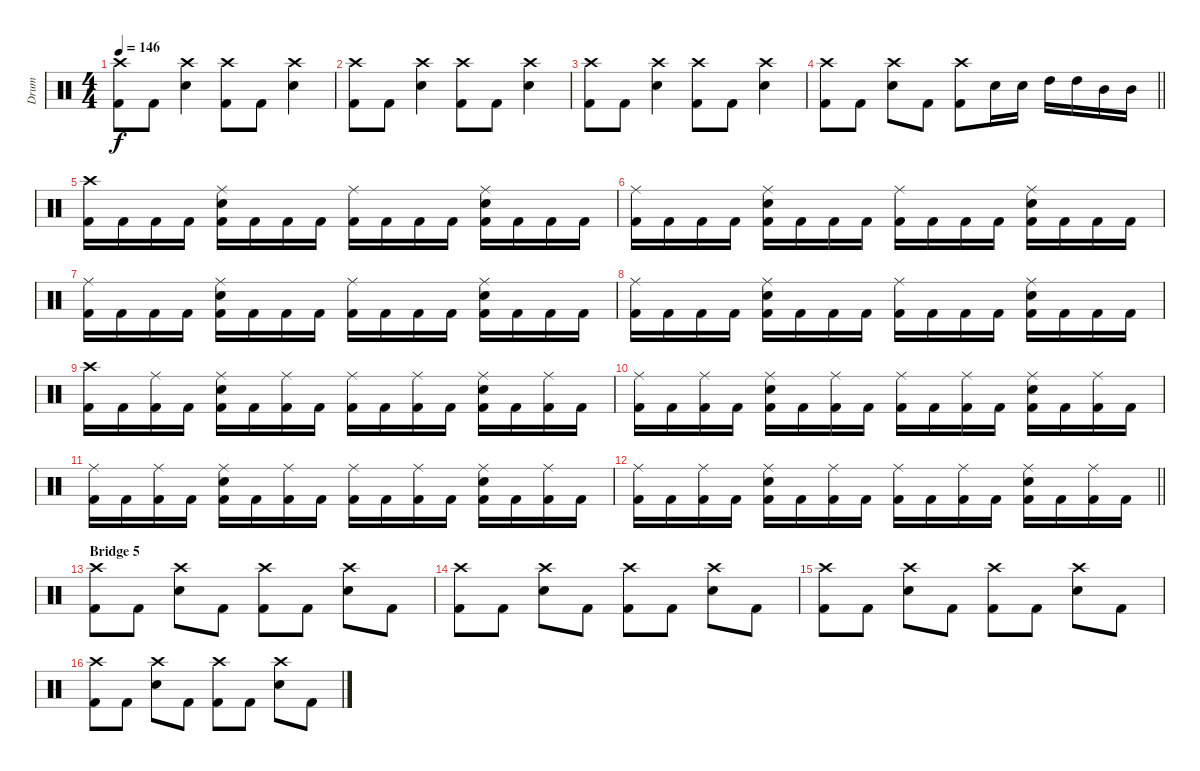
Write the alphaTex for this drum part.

\track ("Drum" "Drum") {instrument percussion}
\staff {score}
\articulation defaults
\ts (4 4)
\tempo 146
\clef neutral
\ks c
("Crash high (hit)" "Kick (hit) 2").8{dy f} "Kick (hit) 2".8 ("Crash high (hit)" "Electric Snare (hit)").4 ("Crash high (hit)" "Kick (hit) 2").8 "Kick (hit) 2".8 ("Crash high (hit)" "Electric Snare (hit)").4 |
("Crash high (hit)" "Kick (hit) 2").8 "Kick (hit) 2".8 ("Crash high (hit)" "Electric Snare (hit)").4 ("Crash high (hit)" "Kick (hit) 2").8 "Kick (hit) 2".8 ("Crash high (hit)" "Electric Snare (hit)").4 |
("Crash high (hit)" "Kick (hit) 2").8 "Kick (hit) 2".8 ("Crash high (hit)" "Electric Snare (hit)").4 ("Crash high (hit)" "Kick (hit) 2").8 "Kick (hit) 2".8 ("Crash high (hit)" "Electric Snare (hit)").4 |
\barLineRight lightlight
("Crash high (hit)" "Kick (hit) 2").8 "Kick (hit) 2".8 ("Crash high (hit)" "Electric Snare (hit)").8 "Kick (hit) 2".8 ("Crash high (hit)" "Kick (hit) 2").8 "Electric Snare (hit)".16 "Electric Snare (hit)".16 "High Tom (hit)".16 "High Tom (hit)".16 "Mid Tom (hit)".16 "Mid Tom (hit)".16 |
("Crash high (hit)" "Kick (hit) 2").16 "Kick (hit) 2".16 "Kick (hit) 2".16 "Kick (hit) 2".16 ("Ride (middle)" "Electric Snare (hit)" "Kick (hit) 2").16 "Kick (hit) 2".16 "Kick (hit) 2".16 "Kick (hit) 2".16 ("Ride (middle)" "Kick (hit) 2").16 "Kick (hit) 2".16 "Kick (hit) 2".16 "Kick (hit) 2".16 ("Ride (middle)" "Electric Snare (hit)" "Kick (hit) 2").16 "Kick (hit) 2".16 "Kick (hit) 2".16 "Kick (hit) 2".16 |
("Ride (middle)" "Kick (hit) 2").16 "Kick (hit) 2".16 "Kick (hit) 2".16 "Kick (hit) 2".16 ("Ride (middle)" "Electric Snare (hit)" "Kick (hit) 2").16 "Kick (hit) 2".16 "Kick (hit) 2".16 "Kick (hit) 2".16 ("Ride (middle)" "Kick (hit) 2").16 "Kick (hit) 2".16 "Kick (hit) 2".16 "Kick (hit) 2".16 ("Ride (middle)" "Electric Snare (hit)" "Kick (hit) 2").16 "Kick (hit) 2".16 "Kick (hit) 2".16 "Kick (hit) 2".16 |
("Ride (middle)" "Kick (hit) 2").16 "Kick (hit) 2".16 "Kick (hit) 2".16 "Kick (hit) 2".16 ("Ride (middle)" "Electric Snare (hit)" "Kick (hit) 2").16 "Kick (hit) 2".16 "Kick (hit) 2".16 "Kick (hit) 2".16 ("Ride (middle)" "Kick (hit) 2").16 "Kick (hit) 2".16 "Kick (hit) 2".16 "Kick (hit) 2".16 ("Ride (middle)" "Electric Snare (hit)" "Kick (hit) 2").16 "Kick (hit) 2".16 "Kick (hit) 2".16 "Kick (hit) 2".16 |
("Ride (middle)" "Kick (hit) 2").16 "Kick (hit) 2".16 "Kick (hit) 2".16 "Kick (hit) 2".16 ("Ride (middle)" "Electric Snare (hit)" "Kick (hit) 2").16 "Kick (hit) 2".16 "Kick (hit) 2".16 "Kick (hit) 2".16 ("Ride (middle)" "Kick (hit) 2").16 "Kick (hit) 2".16 "Kick (hit) 2".16 "Kick (hit) 2".16 ("Ride (middle)" "Electric Snare (hit)" "Kick (hit) 2").16 "Kick (hit) 2".16 "Kick (hit) 2".16 "Kick (hit) 2".16 |
("Crash high (hit)" "Kick (hit) 2").16 "Kick (hit) 2".16 ("Ride (middle)" "Kick (hit) 2").16 "Kick (hit) 2".16 ("Ride (middle)" "Electric Snare (hit)" "Kick (hit) 2").16 "Kick (hit) 2".16 ("Ride (middle)" "Kick (hit) 2").16 "Kick (hit) 2".16 ("Ride (middle)" "Kick (hit) 2").16 "Kick (hit) 2".16 ("Ride (middle)" "Kick (hit) 2").16 "Kick (hit) 2".16 ("Ride (middle)" "Electric Snare (hit)" "Kick (hit) 2").16 "Kick (hit) 2".16 ("Ride (middle)" "Kick (hit) 2").16 "Kick (hit) 2".16 |
("Ride (middle)" "Kick (hit) 2").16 "Kick (hit) 2".16 ("Ride (middle)" "Kick (hit) 2").16 "Kick (hit) 2".16 ("Ride (middle)" "Electric Snare (hit)" "Kick (hit) 2").16 "Kick (hit) 2".16 ("Ride (middle)" "Kick (hit) 2").16 "Kick (hit) 2".16 ("Ride (middle)" "Kick (hit) 2").16 "Kick (hit) 2".16 ("Ride (middle)" "Kick (hit) 2").16 "Kick (hit) 2".16 ("Ride (middle)" "Electric Snare (hit)" "Kick (hit) 2").16 "Kick (hit) 2".16 ("Ride (middle)" "Kick (hit) 2").16 "Kick (hit) 2".16 |
("Ride (middle)" "Kick (hit) 2").16 "Kick (hit) 2".16 ("Ride (middle)" "Kick (hit) 2").16 "Kick (hit) 2".16 ("Ride (middle)" "Electric Snare (hit)" "Kick (hit) 2").16 "Kick (hit) 2".16 ("Ride (middle)" "Kick (hit) 2").16 "Kick (hit) 2".16 ("Ride (middle)" "Kick (hit) 2").16 "Kick (hit) 2".16 ("Ride (middle)" "Kick (hit) 2").16 "Kick (hit) 2".16 ("Ride (middle)" "Electric Snare (hit)" "Kick (hit) 2").16 "Kick (hit) 2".16 ("Ride (middle)" "Kick (hit) 2").16 "Kick (hit) 2".16 |
\barLineRight lightlight
("Ride (middle)" "Kick (hit) 2").16 "Kick (hit) 2".16 ("Ride (middle)" "Kick (hit) 2").16 "Kick (hit) 2".16 ("Ride (middle)" "Electric Snare (hit)" "Kick (hit) 2").16 "Kick (hit) 2".16 ("Ride (middle)" "Kick (hit) 2").16 "Kick (hit) 2".16 ("Ride (middle)" "Kick (hit) 2").16 "Kick (hit) 2".16 ("Ride (middle)" "Kick (hit) 2").16 "Kick (hit) 2".16 ("Ride (middle)" "Electric Snare (hit)" "Kick (hit) 2").16 "Kick (hit) 2".16 ("Ride (middle)" "Kick (hit) 2").16 "Kick (hit) 2".16 |
\section ("" "Bridge 5")
("Crash high (hit)" "Kick (hit) 2").8 "Kick (hit) 2".8 ("Crash high (hit)" "Electric Snare (hit)").8 "Kick (hit) 2".8 ("Crash high (hit)" "Kick (hit) 2").8 "Kick (hit) 2".8 ("Crash high (hit)" "Electric Snare (hit)").8 "Kick (hit) 2".8 |
("Crash high (hit)" "Kick (hit) 2").8 "Kick (hit) 2".8 ("Crash high (hit)" "Electric Snare (hit)").8 "Kick (hit) 2".8 ("Crash high (hit)" "Kick (hit) 2").8 "Kick (hit) 2".8 ("Crash high (hit)" "Electric Snare (hit)").8 "Kick (hit) 2".8 |
("Crash high (hit)" "Kick (hit) 2").8 "Kick (hit) 2".8 ("Crash high (hit)" "Electric Snare (hit)").8 "Kick (hit) 2".8 ("Crash high (hit)" "Kick (hit) 2").8 "Kick (hit) 2".8 ("Crash high (hit)" "Electric Snare (hit)").8 "Kick (hit) 2".8 |
("Crash high (hit)" "Kick (hit) 2").8 "Kick (hit) 2".8 ("Crash high (hit)" "Electric Snare (hit)").8 "Kick (hit) 2".8 ("Crash high (hit)" "Kick (hit) 2").8 "Kick (hit) 2".8 ("Crash high (hit)" "Electric Snare (hit)").8 "Kick (hit) 2".8
